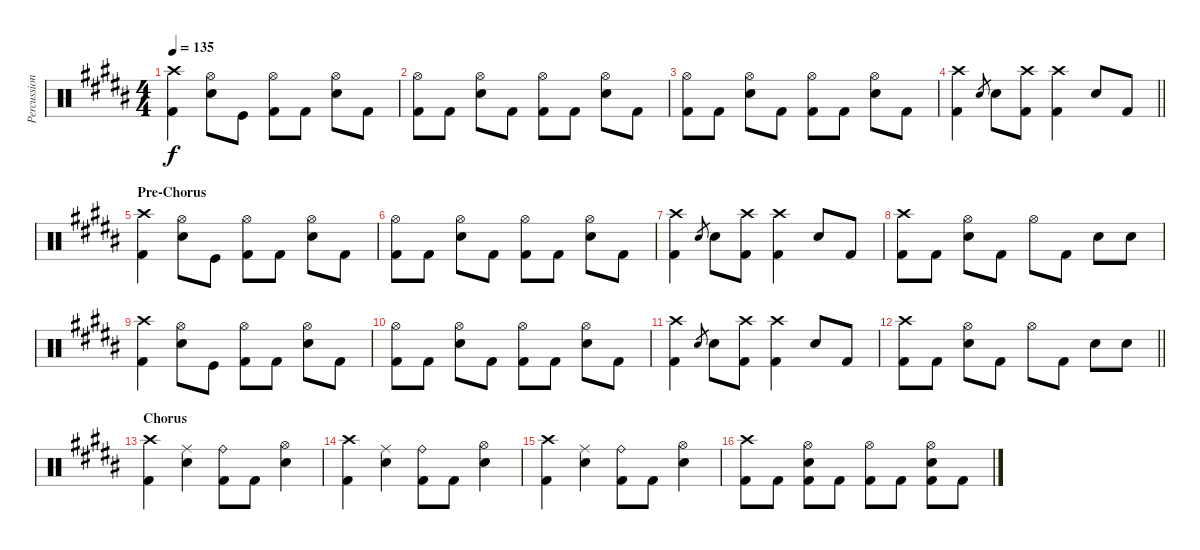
\track ("Percussion" "Percussion") {instrument percussion}
\staff {score}
\articulation defaults
\ts (4 4)
\tempo 135
\clef neutral
\ks b
("Crash high (hit)" "Kick (hit) 2").4{dy f} ("Electric Snare (hit)" "Hi-Hat (open)").8 "Kick (hit)".8 ("Hi-Hat (open)" "Kick (hit) 2").8 "Kick (hit) 2".8 ("Electric Snare (hit)" "Hi-Hat (open)").8 "Kick (hit) 2".8 |
("Hi-Hat (open)" "Kick (hit) 2").8 "Kick (hit) 2".8 ("Electric Snare (hit)" "Hi-Hat (open)").8 "Kick (hit) 2".8 ("Hi-Hat (open)" "Kick (hit) 2").8 "Kick (hit) 2".8 ("Electric Snare (hit)" "Hi-Hat (open)").8 "Kick (hit) 2".8 |
("Hi-Hat (open)" "Kick (hit) 2").8 "Kick (hit) 2".8 ("Electric Snare (hit)" "Hi-Hat (open)").8 "Kick (hit) 2".8 ("Hi-Hat (open)" "Kick (hit) 2").8 "Kick (hit) 2".8 ("Electric Snare (hit)" "Hi-Hat (open)").8 "Kick (hit) 2".8 |
\barLineRight lightlight
("Crash high (hit)" "Kick (hit) 2").4 "Electric Snare (hit)".8{gr} "Electric Snare (hit)".8 ("Crash high (hit)" "Kick (hit) 2").8 ("Crash high (hit)" "Kick (hit) 2").4 "Electric Snare (hit)".8 "Kick (hit) 2".8 |
\section ("" "Pre-Chorus")
("Crash high (hit)" "Kick (hit) 2").4 ("Electric Snare (hit)" "Hi-Hat (open)").8 "Kick (hit)".8 ("Hi-Hat (open)" "Kick (hit) 2").8 "Kick (hit) 2".8 ("Electric Snare (hit)" "Hi-Hat (open)").8 "Kick (hit) 2".8 |
("Hi-Hat (open)" "Kick (hit) 2").8 "Kick (hit) 2".8 ("Electric Snare (hit)" "Hi-Hat (open)").8 "Kick (hit) 2".8 ("Hi-Hat (open)" "Kick (hit) 2").8 "Kick (hit) 2".8 ("Electric Snare (hit)" "Hi-Hat (open)").8 "Kick (hit) 2".8 |
("Crash high (hit)" "Kick (hit) 2").4 "Electric Snare (hit)".8{gr} "Electric Snare (hit)".8 ("Crash high (hit)" "Kick (hit) 2").8 ("Crash high (hit)" "Kick (hit) 2").4 "Electric Snare (hit)".8 "Kick (hit) 2".8 |
("Crash high (hit)" "Kick (hit) 2").8 "Kick (hit) 2".8 ("Hi-Hat (open)" "Electric Snare (hit)").8 "Kick (hit) 2".8 "Hi-Hat (open)".8 "Kick (hit) 2".8 "Electric Snare (hit)".8 "Electric Snare (hit)".8 |
("Crash high (hit)" "Kick (hit) 2").4 ("Electric Snare (hit)" "Hi-Hat (open)").8 "Kick (hit)".8 ("Hi-Hat (open)" "Kick (hit) 2").8 "Kick (hit) 2".8 ("Electric Snare (hit)" "Hi-Hat (open)").8 "Kick (hit) 2".8 |
("Hi-Hat (open)" "Kick (hit) 2").8 "Kick (hit) 2".8 ("Electric Snare (hit)" "Hi-Hat (open)").8 "Kick (hit) 2".8 ("Hi-Hat (open)" "Kick (hit) 2").8 "Kick (hit) 2".8 ("Electric Snare (hit)" "Hi-Hat (open)").8 "Kick (hit) 2".8 |
("Crash high (hit)" "Kick (hit) 2").4 "Electric Snare (hit)".8{gr} "Electric Snare (hit)".8 ("Crash high (hit)" "Kick (hit) 2").8 ("Crash high (hit)" "Kick (hit) 2").4 "Electric Snare (hit)".8 "Kick (hit) 2".8 |
\barLineRight lightlight
("Crash high (hit)" "Kick (hit) 2").8 "Kick (hit) 2".8 ("Hi-Hat (open)" "Electric Snare (hit)").8 "Kick (hit) 2".8 "Hi-Hat (open)".8 "Kick (hit) 2".8 "Electric Snare (hit)".8 "Electric Snare (hit)".8 |
\section ("" "Chorus")
("Crash high (hit)" "Kick (hit) 2").4 ("Ride (middle)" "Electric Snare (hit)").4 ("Ride (bell)" "Kick (hit) 2").8 "Kick (hit) 2".8 ("Hi-Hat (open)" "Electric Snare (hit)").4 |
("Crash high (hit)" "Kick (hit) 2").4 ("Ride (middle)" "Electric Snare (hit)").4 ("Ride (bell)" "Kick (hit) 2").8 "Kick (hit) 2".8 ("Hi-Hat (open)" "Electric Snare (hit)").4 |
("Crash high (hit)" "Kick (hit) 2").4 ("Ride (middle)" "Electric Snare (hit)").4 ("Ride (bell)" "Kick (hit) 2").8 "Kick (hit) 2".8 ("Hi-Hat (open)" "Electric Snare (hit)").4 |
("Crash high (hit)" "Kick (hit) 2").8 "Kick (hit) 2".8 ("Hi-Hat (open)" "Electric Snare (hit)" "Kick (hit) 2").8 "Kick (hit) 2".8 ("Hi-Hat (open)" "Kick (hit) 2").8 "Kick (hit) 2".8 ("Hi-Hat (open)" "Electric Snare (hit)" "Kick (hit) 2").8 "Kick (hit) 2".8
